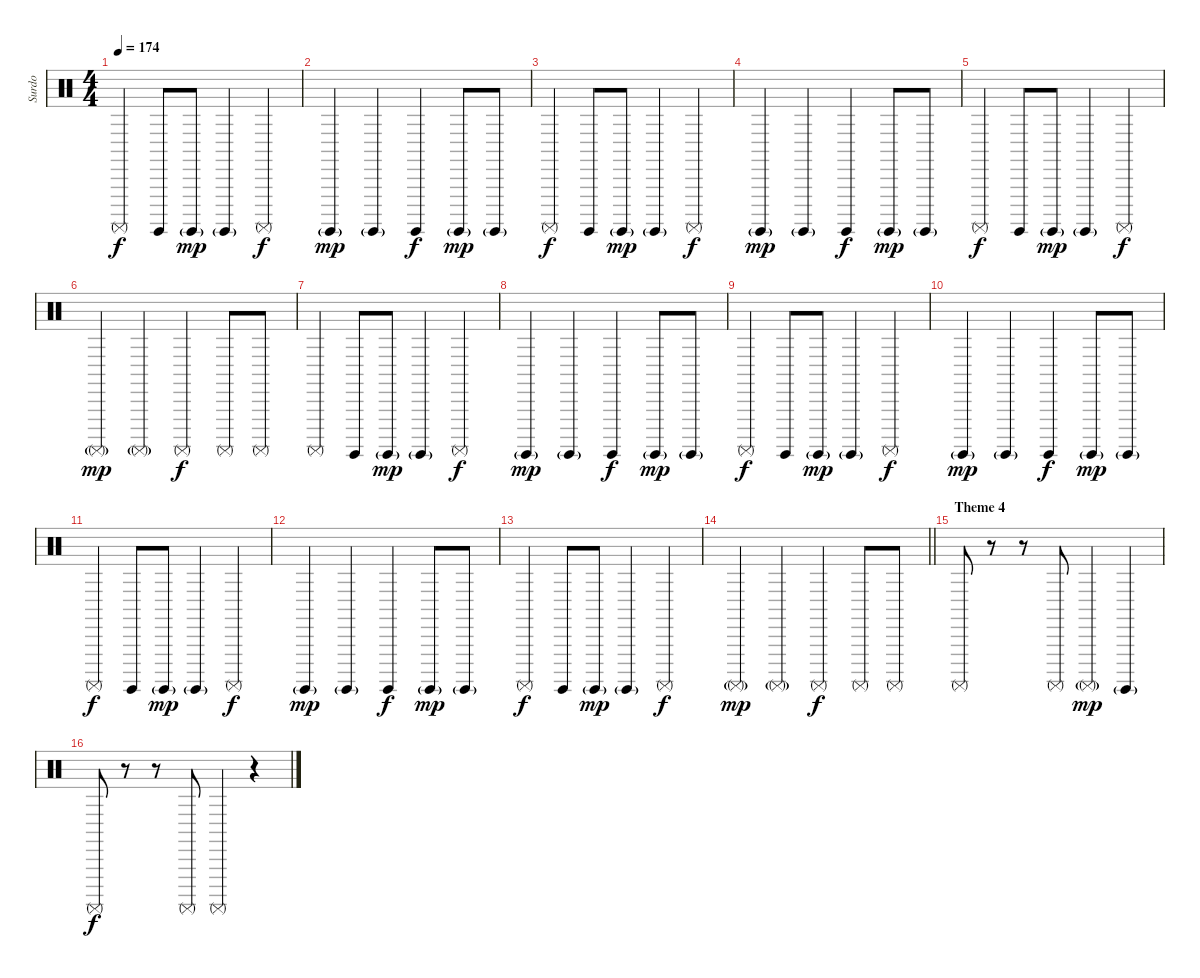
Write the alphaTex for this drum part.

\track ("Surdo" "Surdo") {instrument percussion}
\staff {score}
\articulation defaults
\ts (4 4)
\tempo 174
\clef neutral
\ks c "Surdo (mute)".4{dy f} "Surdo (hit)".8 "Surdo (hit)"{g}.8{dy mp} "Surdo (hit)"{g}.4 "Surdo (mute)".4{dy f}
|
"Surdo (hit)"{g}.4{dy mp} "Surdo (hit)"{g}.4 "Surdo (hit)".4{dy f} "Surdo (hit)"{g}.8{dy mp} "Surdo (hit)"{g}.8 |
"Surdo (mute)".4{dy f} "Surdo (hit)".8 "Surdo (hit)"{g}.8{dy mp} "Surdo (hit)"{g}.4 "Surdo (mute)".4{dy f} |
"Surdo (hit)"{g}.4{dy mp} "Surdo (hit)"{g}.4 "Surdo (hit)".4{dy f} "Surdo (hit)"{g}.8{dy mp} "Surdo (hit)"{g}.8 |
"Surdo (mute)".4{dy f} "Surdo (hit)".8 "Surdo (hit)"{g}.8{dy mp} "Surdo (hit)"{g}.4 "Surdo (mute)".4{dy f} |
"Surdo (mute)"{g}.4{dy mp} "Surdo (mute)"{g}.4 "Surdo (mute)".4{dy f} "Surdo (mute)".8 "Surdo (mute)".8 |
"Surdo (mute)".4 "Surdo (hit)".8 "Surdo (hit)"{g}.8{dy mp} "Surdo (hit)"{g}.4 "Surdo (mute)".4{dy f} |
"Surdo (hit)"{g}.4{dy mp} "Surdo (hit)"{g}.4 "Surdo (hit)".4{dy f} "Surdo (hit)"{g}.8{dy mp} "Surdo (hit)"{g}.8 |
"Surdo (mute)".4{dy f} "Surdo (hit)".8 "Surdo (hit)"{g}.8{dy mp} "Surdo (hit)"{g}.4 "Surdo (mute)".4{dy f} |
"Surdo (hit)"{g}.4{dy mp} "Surdo (hit)"{g}.4 "Surdo (hit)".4{dy f} "Surdo (hit)"{g}.8{dy mp} "Surdo (hit)"{g}.8 |
"Surdo (mute)".4{dy f} "Surdo (hit)".8 "Surdo (hit)"{g}.8{dy mp} "Surdo (hit)"{g}.4 "Surdo (mute)".4{dy f} |
"Surdo (hit)"{g}.4{dy mp} "Surdo (hit)"{g}.4 "Surdo (hit)".4{dy f} "Surdo (hit)"{g}.8{dy mp} "Surdo (hit)"{g}.8 |
"Surdo (mute)".4{dy f} "Surdo (hit)".8 "Surdo (hit)"{g}.8{dy mp} "Surdo (hit)"{g}.4 "Surdo (mute)".4{dy f} |
\barLineRight lightlight "Surdo (mute)"{g}.4{dy mp} "Surdo (mute)"{g}.4 "Surdo (mute)".4{dy f} "Surdo (mute)".8 "Surdo (mute)".8
|
\section ("" "Theme 4")
"Surdo (mute)".8 r.8 r.8 "Surdo (mute)".8 "Surdo (mute)"{g}.4{dy mp} "Surdo (hit)"{g}.4 |
"Surdo (mute)".8{dy f} r.8 r.8 "Surdo (mute)".8 "Surdo (mute)".4 r.4
